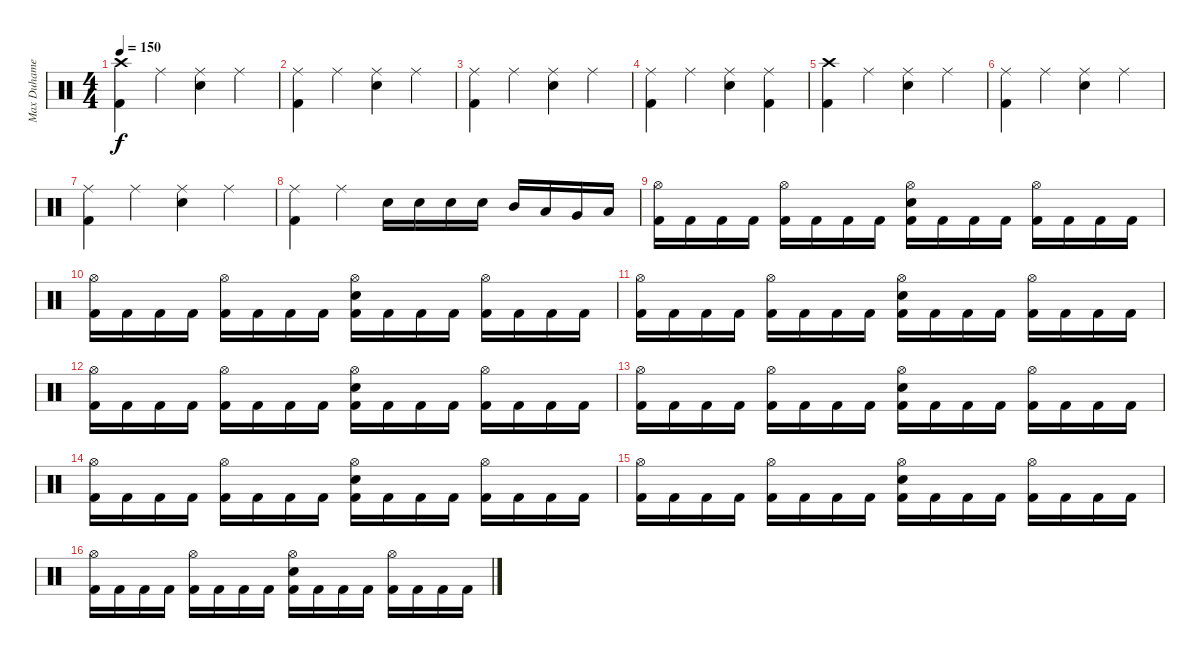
\track ("Max Duhamel (Drums)" "Max Duhame") {instrument percussion}
\staff {score}
\articulation defaults
\ts (4 4)
\tempo 150
\clef neutral
\ks c
("Crash high (hit)" "Kick (hit) 2").4{dy f} "Ride (middle)".4 ("Ride (middle)" "Electric Snare (hit)").4 "Ride (middle)".4 |
("Ride (middle)" "Kick (hit) 2").4 "Ride (middle)".4 ("Ride (middle)" "Electric Snare (hit)").4 "Ride (middle)".4 |
("Ride (middle)" "Kick (hit) 2").4 "Ride (middle)".4 ("Ride (middle)" "Electric Snare (hit)").4 "Ride (middle)".4 |
("Ride (middle)" "Kick (hit) 2").4 "Ride (middle)".4 ("Ride (middle)" "Electric Snare (hit)").4 ("Ride (middle)" "Kick (hit) 2").4 |
("Crash high (hit)" "Kick (hit) 2").4 "Ride (middle)".4 ("Ride (middle)" "Electric Snare (hit)").4 "Ride (middle)".4 |
("Ride (middle)" "Kick (hit) 2").4 "Ride (middle)".4 ("Ride (middle)" "Electric Snare (hit)").4 "Ride (middle)".4 |
("Ride (middle)" "Kick (hit) 2").4 "Ride (middle)".4 ("Ride (middle)" "Electric Snare (hit)").4 "Ride (middle)".4 |
("Ride (middle)" "Kick (hit) 2").4 "Ride (middle)".4 "Electric Snare (hit)".16 "Electric Snare (hit)".16 "Electric Snare (hit)".16 "Electric Snare (hit)".16 "Mid Tom (hit)".16 "Low Tom (hit)".16 "Very Low Tom (hit)".16 "Low Floor Tom (hit)".16 |
("Hi-Hat (open)" "Kick (hit) 2").16 "Kick (hit) 2".16 "Kick (hit) 2".16 "Kick (hit) 2".16 ("Hi-Hat (open)" "Kick (hit) 2").16 "Kick (hit) 2".16 "Kick (hit) 2".16 "Kick (hit) 2".16 ("Hi-Hat (open)" "Electric Snare (hit)" "Kick (hit) 2").16 "Kick (hit) 2".16 "Kick (hit) 2".16 "Kick (hit) 2".16 ("Hi-Hat (open)" "Kick (hit) 2").16 "Kick (hit) 2".16 "Kick (hit) 2".16 "Kick (hit) 2".16 |
("Hi-Hat (open)" "Kick (hit) 2").16 "Kick (hit) 2".16 "Kick (hit) 2".16 "Kick (hit) 2".16 ("Hi-Hat (open)" "Kick (hit) 2").16 "Kick (hit) 2".16 "Kick (hit) 2".16 "Kick (hit) 2".16 ("Hi-Hat (open)" "Electric Snare (hit)" "Kick (hit) 2").16 "Kick (hit) 2".16 "Kick (hit) 2".16 "Kick (hit) 2".16 ("Hi-Hat (open)" "Kick (hit) 2").16 "Kick (hit) 2".16 "Kick (hit) 2".16 "Kick (hit) 2".16 |
("Hi-Hat (open)" "Kick (hit) 2").16 "Kick (hit) 2".16 "Kick (hit) 2".16 "Kick (hit) 2".16 ("Hi-Hat (open)" "Kick (hit) 2").16 "Kick (hit) 2".16 "Kick (hit) 2".16 "Kick (hit) 2".16 ("Hi-Hat (open)" "Electric Snare (hit)" "Kick (hit) 2").16 "Kick (hit) 2".16 "Kick (hit) 2".16 "Kick (hit) 2".16 ("Hi-Hat (open)" "Kick (hit) 2").16 "Kick (hit) 2".16 "Kick (hit) 2".16 "Kick (hit) 2".16 |
("Hi-Hat (open)" "Kick (hit) 2").16 "Kick (hit) 2".16 "Kick (hit) 2".16 "Kick (hit) 2".16 ("Hi-Hat (open)" "Kick (hit) 2").16 "Kick (hit) 2".16 "Kick (hit) 2".16 "Kick (hit) 2".16 ("Hi-Hat (open)" "Electric Snare (hit)" "Kick (hit) 2").16 "Kick (hit) 2".16 "Kick (hit) 2".16 "Kick (hit) 2".16 ("Hi-Hat (open)" "Kick (hit) 2").16 "Kick (hit) 2".16 "Kick (hit) 2".16 "Kick (hit) 2".16 |
("Hi-Hat (open)" "Kick (hit) 2").16 "Kick (hit) 2".16 "Kick (hit) 2".16 "Kick (hit) 2".16 ("Hi-Hat (open)" "Kick (hit) 2").16 "Kick (hit) 2".16 "Kick (hit) 2".16 "Kick (hit) 2".16 ("Hi-Hat (open)" "Electric Snare (hit)" "Kick (hit) 2").16 "Kick (hit) 2".16 "Kick (hit) 2".16 "Kick (hit) 2".16 ("Hi-Hat (open)" "Kick (hit) 2").16 "Kick (hit) 2".16 "Kick (hit) 2".16 "Kick (hit) 2".16 |
("Hi-Hat (open)" "Kick (hit) 2").16 "Kick (hit) 2".16 "Kick (hit) 2".16 "Kick (hit) 2".16 ("Hi-Hat (open)" "Kick (hit) 2").16 "Kick (hit) 2".16 "Kick (hit) 2".16 "Kick (hit) 2".16 ("Hi-Hat (open)" "Electric Snare (hit)" "Kick (hit) 2").16 "Kick (hit) 2".16 "Kick (hit) 2".16 "Kick (hit) 2".16 ("Hi-Hat (open)" "Kick (hit) 2").16 "Kick (hit) 2".16 "Kick (hit) 2".16 "Kick (hit) 2".16 |
("Hi-Hat (open)" "Kick (hit) 2").16 "Kick (hit) 2".16 "Kick (hit) 2".16 "Kick (hit) 2".16 ("Hi-Hat (open)" "Kick (hit) 2").16 "Kick (hit) 2".16 "Kick (hit) 2".16 "Kick (hit) 2".16 ("Hi-Hat (open)" "Electric Snare (hit)" "Kick (hit) 2").16 "Kick (hit) 2".16 "Kick (hit) 2".16 "Kick (hit) 2".16 ("Hi-Hat (open)" "Kick (hit) 2").16 "Kick (hit) 2".16 "Kick (hit) 2".16 "Kick (hit) 2".16 |
("Hi-Hat (open)" "Kick (hit) 2").16 "Kick (hit) 2".16 "Kick (hit) 2".16 "Kick (hit) 2".16 ("Hi-Hat (open)" "Kick (hit) 2").16 "Kick (hit) 2".16 "Kick (hit) 2".16 "Kick (hit) 2".16 ("Hi-Hat (open)" "Electric Snare (hit)" "Kick (hit) 2").16 "Kick (hit) 2".16 "Kick (hit) 2".16 "Kick (hit) 2".16 ("Hi-Hat (open)" "Kick (hit) 2").16 "Kick (hit) 2".16 "Kick (hit) 2".16 "Kick (hit) 2".16
